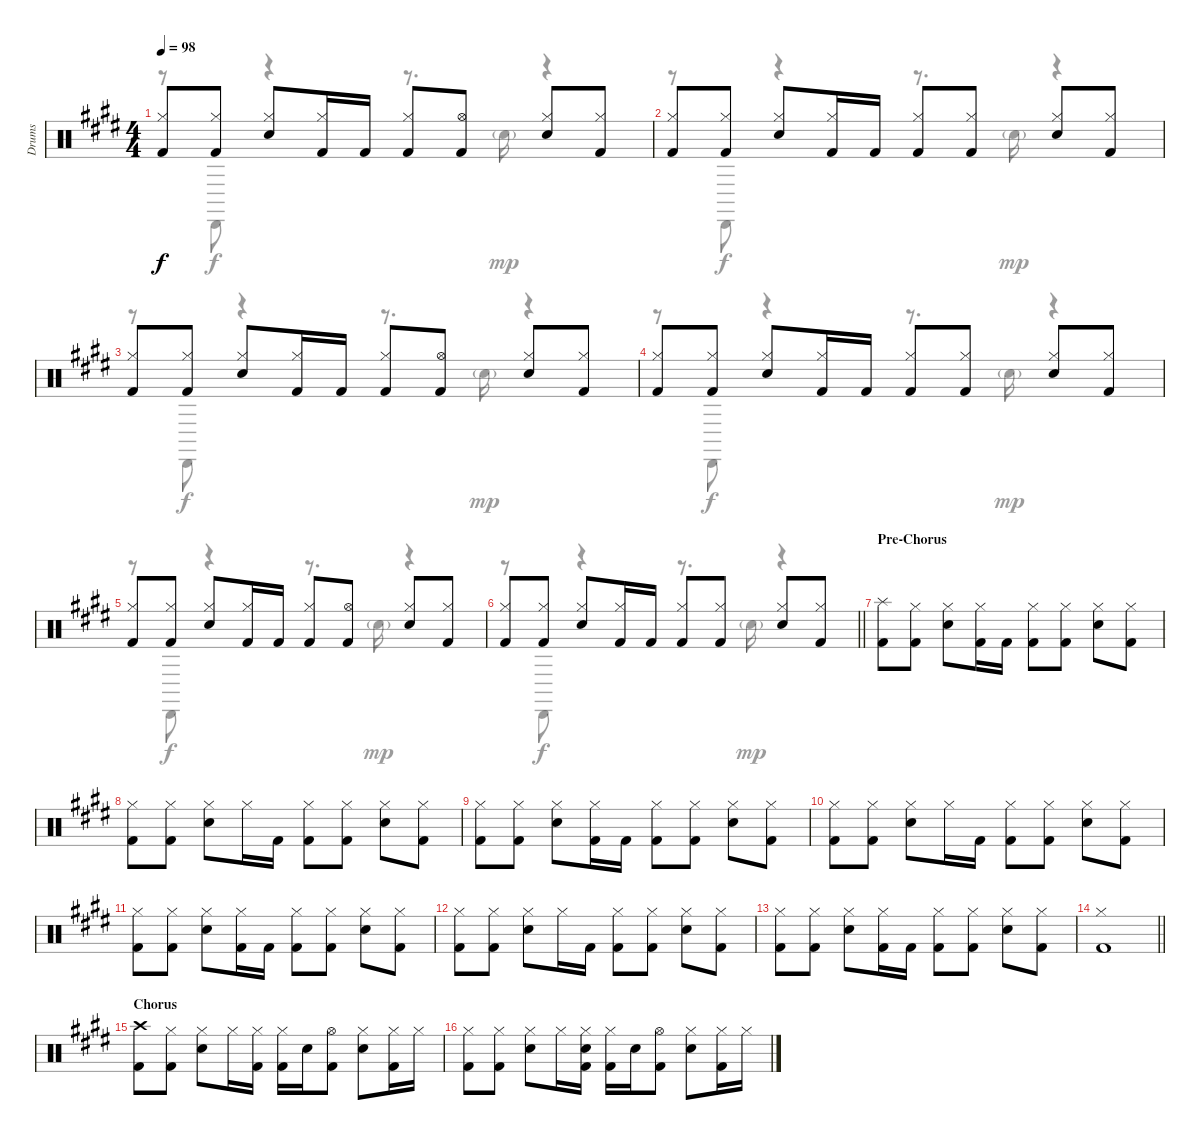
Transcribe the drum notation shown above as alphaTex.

\track ("Drums" "Drums") {instrument percussion}
\staff {score}
\articulation defaults
\voice
\ts (4 4)
\tempo 98
\clef neutral
\ks e
("Hi-Hat (closed)" "Kick (hit) 2").8{dy f} ("Hi-Hat (closed)" "Kick (hit) 2").8 ("Hi-Hat (closed)" "Electric Snare (hit)").8 ("Hi-Hat (closed)" "Kick (hit) 2").16 "Kick (hit) 2".16 ("Hi-Hat (closed)" "Kick (hit) 2").8 ("Hi-Hat (open)" "Kick (hit) 2").8 ("Hi-Hat (closed)" "Electric Snare (hit)").8 ("Hi-Hat (closed)" "Kick (hit) 2").8 |
("Hi-Hat (closed)" "Kick (hit) 2").8 ("Hi-Hat (closed)" "Kick (hit) 2").8 ("Hi-Hat (closed)" "Electric Snare (hit)").8 ("Hi-Hat (closed)" "Kick (hit) 2").16 "Kick (hit) 2".16 ("Hi-Hat (closed)" "Kick (hit) 2").8 ("Hi-Hat (closed)" "Kick (hit) 2").8 ("Hi-Hat (closed)" "Electric Snare (hit)").8 ("Hi-Hat (closed)" "Kick (hit) 2").8 |
("Hi-Hat (closed)" "Kick (hit) 2").8 ("Hi-Hat (closed)" "Kick (hit) 2").8 ("Hi-Hat (closed)" "Electric Snare (hit)").8 ("Hi-Hat (closed)" "Kick (hit) 2").16 "Kick (hit) 2".16 ("Hi-Hat (closed)" "Kick (hit) 2").8 ("Hi-Hat (open)" "Kick (hit) 2").8 ("Hi-Hat (closed)" "Electric Snare (hit)").8 ("Hi-Hat (closed)" "Kick (hit) 2").8 |
("Hi-Hat (closed)" "Kick (hit) 2").8 ("Hi-Hat (closed)" "Kick (hit) 2").8 ("Hi-Hat (closed)" "Electric Snare (hit)").8 ("Hi-Hat (closed)" "Kick (hit) 2").16 "Kick (hit) 2".16 ("Hi-Hat (closed)" "Kick (hit) 2").8 ("Hi-Hat (closed)" "Kick (hit) 2").8 ("Hi-Hat (closed)" "Electric Snare (hit)").8 ("Hi-Hat (closed)" "Kick (hit) 2").8 |
("Hi-Hat (closed)" "Kick (hit) 2").8 ("Hi-Hat (closed)" "Kick (hit) 2").8 ("Hi-Hat (closed)" "Electric Snare (hit)").8 ("Hi-Hat (closed)" "Kick (hit) 2").16 "Kick (hit) 2".16 ("Hi-Hat (closed)" "Kick (hit) 2").8 ("Hi-Hat (open)" "Kick (hit) 2").8 ("Hi-Hat (closed)" "Electric Snare (hit)").8 ("Hi-Hat (closed)" "Kick (hit) 2").8 |
\barLineRight lightlight
("Hi-Hat (closed)" "Kick (hit) 2").8 ("Hi-Hat (closed)" "Kick (hit) 2").8 ("Hi-Hat (closed)" "Electric Snare (hit)").8 ("Hi-Hat (closed)" "Kick (hit) 2").16 "Kick (hit) 2".16 ("Hi-Hat (closed)" "Kick (hit) 2").8 ("Hi-Hat (closed)" "Kick (hit) 2").8 ("Hi-Hat (closed)" "Electric Snare (hit)").8 ("Hi-Hat (closed)" "Kick (hit) 2").8 |
\section ("" "Pre-Chorus")
("Splash (hit)" "Kick (hit) 2").8 ("Hi-Hat (closed)" "Kick (hit) 2").8 ("Hi-Hat (closed)" "Electric Snare (hit)").8 ("Hi-Hat (closed)" "Kick (hit) 2").16 "Kick (hit) 2".16 ("Hi-Hat (closed)" "Kick (hit) 2").8 ("Hi-Hat (closed)" "Kick (hit) 2").8 ("Hi-Hat (closed)" "Electric Snare (hit)").8 ("Hi-Hat (closed)" "Kick (hit) 2").8 |
("Hi-Hat (closed)" "Kick (hit) 2").8 ("Hi-Hat (closed)" "Kick (hit) 2").8 ("Hi-Hat (closed)" "Electric Snare (hit)").8 "Hi-Hat (closed)".16 "Kick (hit) 2".16 ("Hi-Hat (closed)" "Kick (hit) 2").8 ("Hi-Hat (closed)" "Kick (hit) 2").8 ("Hi-Hat (closed)" "Electric Snare (hit)").8 ("Hi-Hat (closed)" "Kick (hit) 2").8 |
("Hi-Hat (closed)" "Kick (hit) 2").8 ("Hi-Hat (closed)" "Kick (hit) 2").8 ("Hi-Hat (closed)" "Electric Snare (hit)").8 ("Hi-Hat (closed)" "Kick (hit) 2").16 "Kick (hit) 2".16 ("Hi-Hat (closed)" "Kick (hit) 2").8 ("Hi-Hat (closed)" "Kick (hit) 2").8 ("Hi-Hat (closed)" "Electric Snare (hit)").8 ("Hi-Hat (closed)" "Kick (hit) 2").8 |
("Hi-Hat (closed)" "Kick (hit) 2").8 ("Hi-Hat (closed)" "Kick (hit) 2").8 ("Hi-Hat (closed)" "Electric Snare (hit)").8 "Hi-Hat (closed)".16 "Kick (hit) 2".16 ("Hi-Hat (closed)" "Kick (hit) 2").8 ("Hi-Hat (closed)" "Kick (hit) 2").8 ("Hi-Hat (closed)" "Electric Snare (hit)").8 ("Hi-Hat (closed)" "Kick (hit) 2").8 |
("Hi-Hat (closed)" "Kick (hit) 2").8 ("Hi-Hat (closed)" "Kick (hit) 2").8 ("Hi-Hat (closed)" "Electric Snare (hit)").8 ("Hi-Hat (closed)" "Kick (hit) 2").16 "Kick (hit) 2".16 ("Hi-Hat (closed)" "Kick (hit) 2").8 ("Hi-Hat (closed)" "Kick (hit) 2").8 ("Hi-Hat (closed)" "Electric Snare (hit)").8 ("Hi-Hat (closed)" "Kick (hit) 2").8 |
("Hi-Hat (closed)" "Kick (hit) 2").8 ("Hi-Hat (closed)" "Kick (hit) 2").8 ("Hi-Hat (closed)" "Electric Snare (hit)").8 "Hi-Hat (closed)".16 "Kick (hit) 2".16 ("Hi-Hat (closed)" "Kick (hit) 2").8 ("Hi-Hat (closed)" "Kick (hit) 2").8 ("Hi-Hat (closed)" "Electric Snare (hit)").8 ("Hi-Hat (closed)" "Kick (hit) 2").8 |
("Hi-Hat (closed)" "Kick (hit) 2").8 ("Hi-Hat (closed)" "Kick (hit) 2").8 ("Hi-Hat (closed)" "Electric Snare (hit)").8 ("Hi-Hat (closed)" "Kick (hit) 2").16 "Kick (hit) 2".16 ("Hi-Hat (closed)" "Kick (hit) 2").8 ("Hi-Hat (closed)" "Kick (hit) 2").8 ("Hi-Hat (closed)" "Electric Snare (hit)").8 ("Hi-Hat (closed)" "Kick (hit) 2").8 |
\barLineRight lightlight
("Hi-Hat (closed)" "Kick (hit) 2").1 |
\section ("" "Chorus")
("Crash high (hit)" "Kick (hit) 2").8 ("Hi-Hat (closed)" "Kick (hit) 2").8 ("Hi-Hat (closed)" "Electric Snare (hit)").8 "Hi-Hat (closed)".16 ("Hi-Hat (closed)" "Kick (hit) 2").16 ("Hi-Hat (closed)" "Kick (hit) 2").16 "Electric Snare (hit)".16 ("Hi-Hat (open)" "Kick (hit) 2").8 ("Hi-Hat (closed)" "Electric Snare (hit)").8 ("Hi-Hat (closed)" "Kick (hit) 2").16 "Hi-Hat (closed)".16 |
("Hi-Hat (closed)" "Kick (hit) 2").8 ("Hi-Hat (closed)" "Kick (hit) 2").8 ("Hi-Hat (closed)" "Electric Snare (hit)").8 "Hi-Hat (closed)".16 ("Hi-Hat (closed)" "Electric Snare (hit)" "Kick (hit) 2").16 ("Hi-Hat (closed)" "Kick (hit) 2").16 "Electric Snare (hit)".16 ("Hi-Hat (open)" "Kick (hit) 2").8 ("Hi-Hat (closed)" "Electric Snare (hit)").8 ("Hi-Hat (closed)" "Kick (hit) 2").16 "Hi-Hat (closed)".16
\voice
\clef neutral
\ottava regular
\simile none
\ks e
r.8{dy mp} "Cabasa (hit)".8{dy f} r.4 r.8{d} "Metronome (bell)"{g}.16{dy mp} r.4 |
r.8 "Cabasa (hit)".8{dy f} r.4 r.8{d} "Metronome (bell)"{g}.16{dy mp} r.4 |
r.8 "Cabasa (hit)".8{dy f} r.4 r.8{d} "Metronome (bell)"{g}.16{dy mp} r.4 |
r.8 "Cabasa (hit)".8{dy f} r.4 r.8{d} "Metronome (bell)"{g}.16{dy mp} r.4 |
r.8 "Cabasa (hit)".8{dy f} r.4 r.8{d} "Metronome (bell)"{g}.16{dy mp} r.4 |
\barLineRight lightlight
r.8 "Cabasa (hit)".8{dy f} r.4 r.8{d} "Metronome (bell)"{g}.16{dy mp} r.4 |
|
|
|
|
|
|
|
\barLineRight lightlight
|
|
